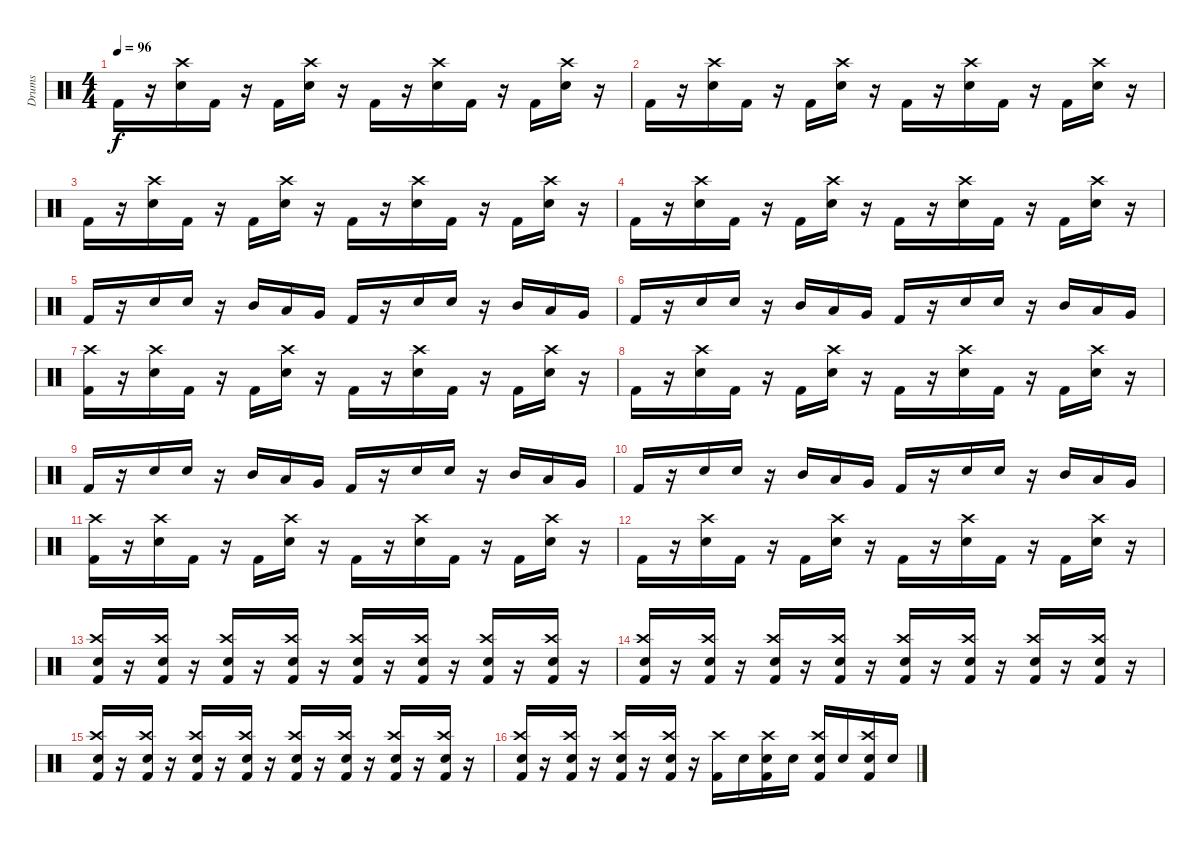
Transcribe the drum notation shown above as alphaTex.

\track ("Drums" "Drums") {instrument percussion}
\staff {score}
\articulation defaults
\ts (4 4)
\tempo 96
\clef neutral
\ks c "Kick (hit) 2".16{dy f}
r.16 ("Crash high (hit)" "Electric Snare (hit)").16 "Kick (hit) 2".16 r.16 "Kick (hit) 2".16 ("Crash high (hit)" "Electric Snare (hit)").16 r.16 "Kick (hit) 2".16 r.16 ("Crash high (hit)" "Electric Snare (hit)").16 "Kick (hit) 2".16 r.16 "Kick (hit) 2".16 ("Crash high (hit)" "Electric Snare (hit)").16 r.16 |
"Kick (hit) 2".16 r.16 ("Crash high (hit)" "Electric Snare (hit)").16 "Kick (hit) 2".16 r.16 "Kick (hit) 2".16 ("Crash high (hit)" "Electric Snare (hit)").16 r.16 "Kick (hit) 2".16 r.16 ("Crash high (hit)" "Electric Snare (hit)").16 "Kick (hit) 2".16 r.16 "Kick (hit) 2".16 ("Crash high (hit)" "Electric Snare (hit)").16 r.16 |
"Kick (hit) 2".16 r.16 ("Crash high (hit)" "Electric Snare (hit)").16 "Kick (hit) 2".16 r.16 "Kick (hit) 2".16 ("Crash high (hit)" "Electric Snare (hit)").16 r.16 "Kick (hit) 2".16 r.16 ("Crash high (hit)" "Electric Snare (hit)").16 "Kick (hit) 2".16 r.16 "Kick (hit) 2".16 ("Crash high (hit)" "Electric Snare (hit)").16 r.16 |
"Kick (hit) 2".16 r.16 ("Crash high (hit)" "Electric Snare (hit)").16 "Kick (hit) 2".16 r.16 "Kick (hit) 2".16 ("Crash high (hit)" "Electric Snare (hit)").16 r.16 "Kick (hit) 2".16 r.16 ("Crash high (hit)" "Electric Snare (hit)").16 "Kick (hit) 2".16 r.16 "Kick (hit) 2".16 ("Crash high (hit)" "Electric Snare (hit)").16 r.16 |
"Kick (hit) 2".16 r.16 "Electric Snare (hit)".16 "Electric Snare (hit)".16 r.16 "Mid Tom (hit)".16 "Low Tom (hit)".16 "Very Low Tom (hit)".16 "Kick (hit) 2".16 r.16 "Electric Snare (hit)".16 "Electric Snare (hit)".16 r.16 "Mid Tom (hit)".16 "Low Tom (hit)".16 "Very Low Tom (hit)".16 |
"Kick (hit) 2".16 r.16 "Electric Snare (hit)".16 "Electric Snare (hit)".16 r.16 "Mid Tom (hit)".16 "Low Tom (hit)".16 "Very Low Tom (hit)".16 "Kick (hit) 2".16 r.16 "Electric Snare (hit)".16 "Electric Snare (hit)".16 r.16 "Mid Tom (hit)".16 "Low Tom (hit)".16 "Very Low Tom (hit)".16 |
("Crash high (hit)" "Kick (hit) 2").16 r.16 ("Crash high (hit)" "Electric Snare (hit)").16 "Kick (hit) 2".16 r.16 "Kick (hit) 2".16 ("Crash high (hit)" "Electric Snare (hit)").16 r.16 "Kick (hit) 2".16 r.16 ("Crash high (hit)" "Electric Snare (hit)").16 "Kick (hit) 2".16 r.16 "Kick (hit) 2".16 ("Crash high (hit)" "Electric Snare (hit)").16 r.16 |
"Kick (hit) 2".16 r.16 ("Crash high (hit)" "Electric Snare (hit)").16 "Kick (hit) 2".16 r.16 "Kick (hit) 2".16 ("Crash high (hit)" "Electric Snare (hit)").16 r.16 "Kick (hit) 2".16 r.16 ("Crash high (hit)" "Electric Snare (hit)").16 "Kick (hit) 2".16 r.16 "Kick (hit) 2".16 ("Crash high (hit)" "Electric Snare (hit)").16 r.16 |
"Kick (hit) 2".16 r.16 "Electric Snare (hit)".16 "Electric Snare (hit)".16 r.16 "Mid Tom (hit)".16 "Low Tom (hit)".16 "Very Low Tom (hit)".16 "Kick (hit) 2".16 r.16 "Electric Snare (hit)".16 "Electric Snare (hit)".16 r.16 "Mid Tom (hit)".16 "Low Tom (hit)".16 "Very Low Tom (hit)".16 |
"Kick (hit) 2".16 r.16 "Electric Snare (hit)".16 "Electric Snare (hit)".16 r.16 "Mid Tom (hit)".16 "Low Tom (hit)".16 "Very Low Tom (hit)".16 "Kick (hit) 2".16 r.16 "Electric Snare (hit)".16 "Electric Snare (hit)".16 r.16 "Mid Tom (hit)".16 "Low Tom (hit)".16 "Very Low Tom (hit)".16 |
("Crash high (hit)" "Kick (hit) 2").16 r.16 ("Crash high (hit)" "Electric Snare (hit)").16 "Kick (hit) 2".16 r.16 "Kick (hit) 2".16 ("Crash high (hit)" "Electric Snare (hit)").16 r.16 "Kick (hit) 2".16 r.16 ("Crash high (hit)" "Electric Snare (hit)").16 "Kick (hit) 2".16 r.16 "Kick (hit) 2".16 ("Crash high (hit)" "Electric Snare (hit)").16 r.16 |
"Kick (hit) 2".16 r.16 ("Crash high (hit)" "Electric Snare (hit)").16 "Kick (hit) 2".16 r.16 "Kick (hit) 2".16 ("Crash high (hit)" "Electric Snare (hit)").16 r.16 "Kick (hit) 2".16 r.16 ("Crash high (hit)" "Electric Snare (hit)").16 "Kick (hit) 2".16 r.16 "Kick (hit) 2".16 ("Crash high (hit)" "Electric Snare (hit)").16 r.16 |
("Crash high (hit)" "Electric Snare (hit)" "Kick (hit) 2").16 r.16 ("Crash high (hit)" "Electric Snare (hit)" "Kick (hit) 2").16 r.16 ("Crash high (hit)" "Electric Snare (hit)" "Kick (hit) 2").16 r.16 ("Crash high (hit)" "Electric Snare (hit)" "Kick (hit) 2").16 r.16 ("Crash high (hit)" "Electric Snare (hit)" "Kick (hit) 2").16 r.16 ("Crash high (hit)" "Electric Snare (hit)" "Kick (hit) 2").16 r.16 ("Crash high (hit)" "Electric Snare (hit)" "Kick (hit) 2").16 r.16 ("Crash high (hit)" "Electric Snare (hit)" "Kick (hit) 2").16 r.16 |
("Crash high (hit)" "Electric Snare (hit)" "Kick (hit) 2").16 r.16 ("Crash high (hit)" "Electric Snare (hit)" "Kick (hit) 2").16 r.16 ("Crash high (hit)" "Electric Snare (hit)" "Kick (hit) 2").16 r.16 ("Crash high (hit)" "Electric Snare (hit)" "Kick (hit) 2").16 r.16 ("Crash high (hit)" "Electric Snare (hit)" "Kick (hit) 2").16 r.16 ("Crash high (hit)" "Electric Snare (hit)" "Kick (hit) 2").16 r.16 ("Crash high (hit)" "Electric Snare (hit)" "Kick (hit) 2").16 r.16 ("Crash high (hit)" "Electric Snare (hit)" "Kick (hit) 2").16 r.16 |
("Crash high (hit)" "Electric Snare (hit)" "Kick (hit) 2").16 r.16 ("Crash high (hit)" "Electric Snare (hit)" "Kick (hit) 2").16 r.16 ("Crash high (hit)" "Electric Snare (hit)" "Kick (hit) 2").16 r.16 ("Crash high (hit)" "Electric Snare (hit)" "Kick (hit) 2").16 r.16 ("Crash high (hit)" "Electric Snare (hit)" "Kick (hit) 2").16 r.16 ("Crash high (hit)" "Electric Snare (hit)" "Kick (hit) 2").16 r.16 ("Crash high (hit)" "Electric Snare (hit)" "Kick (hit) 2").16 r.16 ("Crash high (hit)" "Electric Snare (hit)" "Kick (hit) 2").16 r.16 |
("Crash high (hit)" "Electric Snare (hit)" "Kick (hit) 2").16 r.16 ("Crash high (hit)" "Electric Snare (hit)" "Kick (hit) 2").16 r.16 ("Crash high (hit)" "Electric Snare (hit)" "Kick (hit) 2").16 r.16 ("Crash high (hit)" "Electric Snare (hit)" "Kick (hit) 2").16 r.16 ("Crash high (hit)" "Kick (hit) 2").16 "Electric Snare (hit)".16 ("Crash high (hit)" "Electric Snare (hit)" "Kick (hit) 2").16 "Electric Snare (hit)".16 ("Crash high (hit)" "Electric Snare (hit)" "Kick (hit) 2").16 "Electric Snare (hit)".16 ("Crash high (hit)" "Electric Snare (hit)" "Kick (hit) 2").16 "Electric Snare (hit)".16
